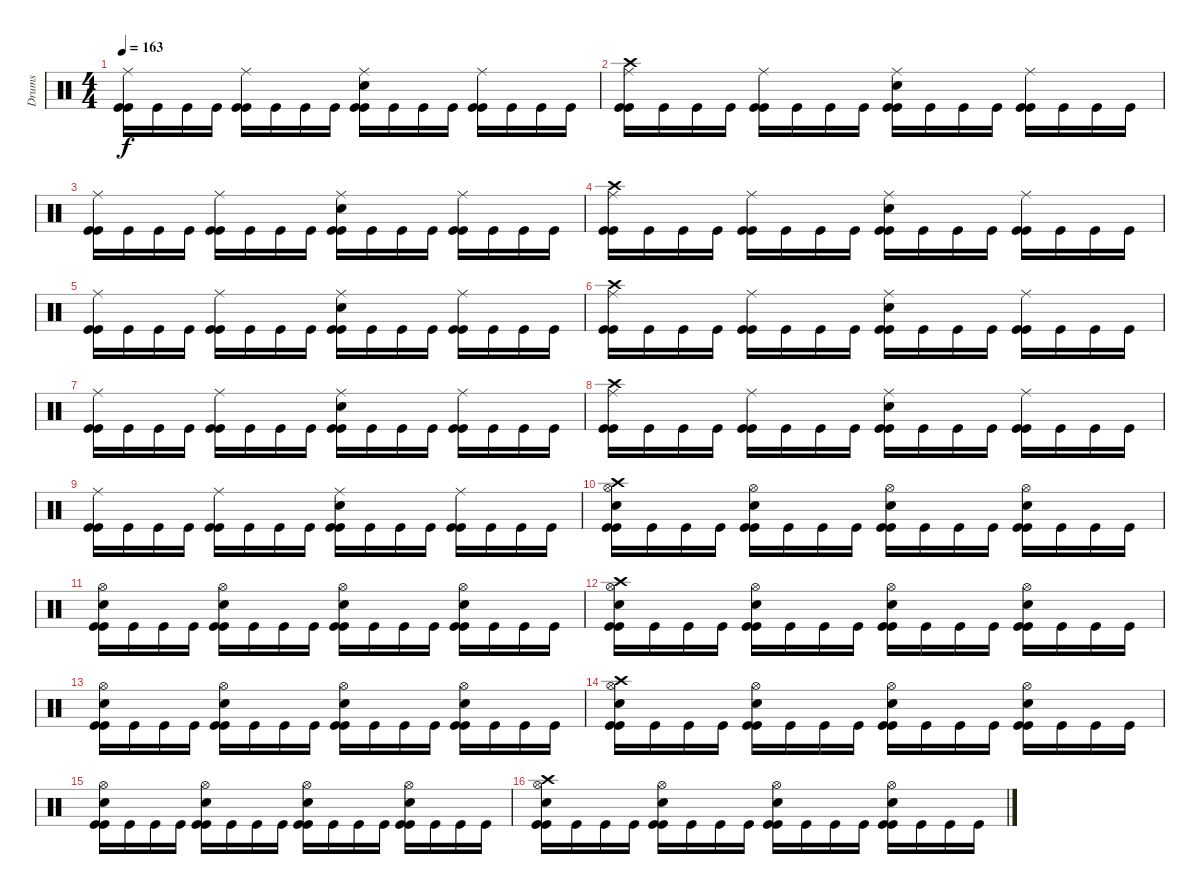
\track ("Drums" "Drums") {instrument percussion}
\staff {score}
\articulation defaults
\ts (4 4)
\tempo 163
\clef neutral
\ks c
("Ride (middle)" "Kick (hit)" "Kick (hit)").16{dy f} "Kick (hit)".16 "Kick (hit)".16 "Kick (hit)".16 ("Ride (middle)" "Kick (hit)" "Kick (hit)").16 "Kick (hit)".16 "Kick (hit)".16 "Kick (hit)".16 ("Electric Snare (hit)" "Ride (middle)" "Kick (hit)" "Kick (hit)").16 "Kick (hit)".16 "Kick (hit)".16 "Kick (hit)".16 ("Ride (middle)" "Kick (hit)" "Kick (hit)").16 "Kick (hit)".16 "Kick (hit)".16 "Kick (hit)".16 |
("Crash high (hit)" "Ride (middle)" "Kick (hit)" "Kick (hit)").16 "Kick (hit)".16 "Kick (hit)".16 "Kick (hit)".16 ("Ride (middle)" "Kick (hit)" "Kick (hit)").16 "Kick (hit)".16 "Kick (hit)".16 "Kick (hit)".16 ("Electric Snare (hit)" "Ride (middle)" "Kick (hit)" "Kick (hit)").16 "Kick (hit)".16 "Kick (hit)".16 "Kick (hit)".16 ("Ride (middle)" "Kick (hit)" "Kick (hit)").16 "Kick (hit)".16 "Kick (hit)".16 "Kick (hit)".16 |
("Ride (middle)" "Kick (hit)" "Kick (hit)").16 "Kick (hit)".16 "Kick (hit)".16 "Kick (hit)".16 ("Ride (middle)" "Kick (hit)" "Kick (hit)").16 "Kick (hit)".16 "Kick (hit)".16 "Kick (hit)".16 ("Electric Snare (hit)" "Ride (middle)" "Kick (hit)" "Kick (hit)").16 "Kick (hit)".16 "Kick (hit)".16 "Kick (hit)".16 ("Ride (middle)" "Kick (hit)" "Kick (hit)").16 "Kick (hit)".16 "Kick (hit)".16 "Kick (hit)".16 |
("Crash high (hit)" "Ride (middle)" "Kick (hit)" "Kick (hit)").16 "Kick (hit)".16 "Kick (hit)".16 "Kick (hit)".16 ("Ride (middle)" "Kick (hit)" "Kick (hit)").16 "Kick (hit)".16 "Kick (hit)".16 "Kick (hit)".16 ("Electric Snare (hit)" "Ride (middle)" "Kick (hit)" "Kick (hit)").16 "Kick (hit)".16 "Kick (hit)".16 "Kick (hit)".16 ("Ride (middle)" "Kick (hit)" "Kick (hit)").16 "Kick (hit)".16 "Kick (hit)".16 "Kick (hit)".16 |
("Ride (middle)" "Kick (hit)" "Kick (hit)").16 "Kick (hit)".16 "Kick (hit)".16 "Kick (hit)".16 ("Ride (middle)" "Kick (hit)" "Kick (hit)").16 "Kick (hit)".16 "Kick (hit)".16 "Kick (hit)".16 ("Electric Snare (hit)" "Ride (middle)" "Kick (hit)" "Kick (hit)").16 "Kick (hit)".16 "Kick (hit)".16 "Kick (hit)".16 ("Ride (middle)" "Kick (hit)" "Kick (hit)").16 "Kick (hit)".16 "Kick (hit)".16 "Kick (hit)".16 |
("Crash high (hit)" "Ride (middle)" "Kick (hit)" "Kick (hit)").16 "Kick (hit)".16 "Kick (hit)".16 "Kick (hit)".16 ("Ride (middle)" "Kick (hit)" "Kick (hit)").16 "Kick (hit)".16 "Kick (hit)".16 "Kick (hit)".16 ("Electric Snare (hit)" "Ride (middle)" "Kick (hit)" "Kick (hit)").16 "Kick (hit)".16 "Kick (hit)".16 "Kick (hit)".16 ("Ride (middle)" "Kick (hit)" "Kick (hit)").16 "Kick (hit)".16 "Kick (hit)".16 "Kick (hit)".16 |
("Ride (middle)" "Kick (hit)" "Kick (hit)").16 "Kick (hit)".16 "Kick (hit)".16 "Kick (hit)".16 ("Ride (middle)" "Kick (hit)" "Kick (hit)").16 "Kick (hit)".16 "Kick (hit)".16 "Kick (hit)".16 ("Electric Snare (hit)" "Ride (middle)" "Kick (hit)" "Kick (hit)").16 "Kick (hit)".16 "Kick (hit)".16 "Kick (hit)".16 ("Ride (middle)" "Kick (hit)" "Kick (hit)").16 "Kick (hit)".16 "Kick (hit)".16 "Kick (hit)".16 |
("Crash high (hit)" "Ride (middle)" "Kick (hit)" "Kick (hit)").16 "Kick (hit)".16 "Kick (hit)".16 "Kick (hit)".16 ("Ride (middle)" "Kick (hit)" "Kick (hit)").16 "Kick (hit)".16 "Kick (hit)".16 "Kick (hit)".16 ("Electric Snare (hit)" "Ride (middle)" "Kick (hit)" "Kick (hit)").16 "Kick (hit)".16 "Kick (hit)".16 "Kick (hit)".16 ("Ride (middle)" "Kick (hit)" "Kick (hit)").16 "Kick (hit)".16 "Kick (hit)".16 "Kick (hit)".16 |
("Ride (middle)" "Kick (hit)" "Kick (hit)").16 "Kick (hit)".16 "Kick (hit)".16 "Kick (hit)".16 ("Ride (middle)" "Kick (hit)" "Kick (hit)").16 "Kick (hit)".16 "Kick (hit)".16 "Kick (hit)".16 ("Electric Snare (hit)" "Ride (middle)" "Kick (hit)" "Kick (hit)").16 "Kick (hit)".16 "Kick (hit)".16 "Kick (hit)".16 ("Ride (middle)" "Kick (hit)" "Kick (hit)").16 "Kick (hit)".16 "Kick (hit)".16 "Kick (hit)".16 |
("Hi-Hat (open)" "Electric Snare (hit)" "Crash high (hit)" "Kick (hit)" "Kick (hit)").16 "Kick (hit)".16 "Kick (hit)".16 "Kick (hit)".16 ("Hi-Hat (open)" "Electric Snare (hit)" "Kick (hit)" "Kick (hit)").16 "Kick (hit)".16 "Kick (hit)".16 "Kick (hit)".16 ("Hi-Hat (open)" "Electric Snare (hit)" "Kick (hit)" "Kick (hit)").16 "Kick (hit)".16 "Kick (hit)".16 "Kick (hit)".16 ("Hi-Hat (open)" "Electric Snare (hit)" "Kick (hit)" "Kick (hit)").16 "Kick (hit)".16 "Kick (hit)".16 "Kick (hit)".16 |
("Hi-Hat (open)" "Electric Snare (hit)" "Kick (hit)" "Kick (hit)").16 "Kick (hit)".16 "Kick (hit)".16 "Kick (hit)".16 ("Hi-Hat (open)" "Electric Snare (hit)" "Kick (hit)" "Kick (hit)").16 "Kick (hit)".16 "Kick (hit)".16 "Kick (hit)".16 ("Hi-Hat (open)" "Electric Snare (hit)" "Kick (hit)" "Kick (hit)").16 "Kick (hit)".16 "Kick (hit)".16 "Kick (hit)".16 ("Hi-Hat (open)" "Electric Snare (hit)" "Kick (hit)" "Kick (hit)").16 "Kick (hit)".16 "Kick (hit)".16 "Kick (hit)".16 |
("Hi-Hat (open)" "Electric Snare (hit)" "Crash high (hit)" "Kick (hit)" "Kick (hit)").16 "Kick (hit)".16 "Kick (hit)".16 "Kick (hit)".16 ("Hi-Hat (open)" "Electric Snare (hit)" "Kick (hit)" "Kick (hit)").16 "Kick (hit)".16 "Kick (hit)".16 "Kick (hit)".16 ("Hi-Hat (open)" "Electric Snare (hit)" "Kick (hit)" "Kick (hit)").16 "Kick (hit)".16 "Kick (hit)".16 "Kick (hit)".16 ("Hi-Hat (open)" "Electric Snare (hit)" "Kick (hit)" "Kick (hit)").16 "Kick (hit)".16 "Kick (hit)".16 "Kick (hit)".16 |
("Hi-Hat (open)" "Electric Snare (hit)" "Kick (hit)" "Kick (hit)").16 "Kick (hit)".16 "Kick (hit)".16 "Kick (hit)".16 ("Hi-Hat (open)" "Electric Snare (hit)" "Kick (hit)" "Kick (hit)").16 "Kick (hit)".16 "Kick (hit)".16 "Kick (hit)".16 ("Hi-Hat (open)" "Electric Snare (hit)" "Kick (hit)" "Kick (hit)").16 "Kick (hit)".16 "Kick (hit)".16 "Kick (hit)".16 ("Hi-Hat (open)" "Electric Snare (hit)" "Kick (hit)" "Kick (hit)").16 "Kick (hit)".16 "Kick (hit)".16 "Kick (hit)".16 |
("Hi-Hat (open)" "Electric Snare (hit)" "Crash high (hit)" "Kick (hit)" "Kick (hit)").16 "Kick (hit)".16 "Kick (hit)".16 "Kick (hit)".16 ("Hi-Hat (open)" "Electric Snare (hit)" "Kick (hit)" "Kick (hit)").16 "Kick (hit)".16 "Kick (hit)".16 "Kick (hit)".16 ("Hi-Hat (open)" "Electric Snare (hit)" "Kick (hit)" "Kick (hit)").16 "Kick (hit)".16 "Kick (hit)".16 "Kick (hit)".16 ("Hi-Hat (open)" "Electric Snare (hit)" "Kick (hit)" "Kick (hit)").16 "Kick (hit)".16 "Kick (hit)".16 "Kick (hit)".16 |
("Hi-Hat (open)" "Electric Snare (hit)" "Kick (hit)" "Kick (hit)").16 "Kick (hit)".16 "Kick (hit)".16 "Kick (hit)".16 ("Hi-Hat (open)" "Electric Snare (hit)" "Kick (hit)" "Kick (hit)").16 "Kick (hit)".16 "Kick (hit)".16 "Kick (hit)".16 ("Hi-Hat (open)" "Electric Snare (hit)" "Kick (hit)" "Kick (hit)").16 "Kick (hit)".16 "Kick (hit)".16 "Kick (hit)".16 ("Hi-Hat (open)" "Electric Snare (hit)" "Kick (hit)" "Kick (hit)").16 "Kick (hit)".16 "Kick (hit)".16 "Kick (hit)".16 |
("Hi-Hat (open)" "Electric Snare (hit)" "Crash high (hit)" "Kick (hit)" "Kick (hit)").16 "Kick (hit)".16 "Kick (hit)".16 "Kick (hit)".16 ("Hi-Hat (open)" "Electric Snare (hit)" "Kick (hit)" "Kick (hit)").16 "Kick (hit)".16 "Kick (hit)".16 "Kick (hit)".16 ("Hi-Hat (open)" "Electric Snare (hit)" "Kick (hit)" "Kick (hit)").16 "Kick (hit)".16 "Kick (hit)".16 "Kick (hit)".16 ("Hi-Hat (open)" "Electric Snare (hit)" "Kick (hit)" "Kick (hit)").16 "Kick (hit)".16 "Kick (hit)".16 "Kick (hit)".16
